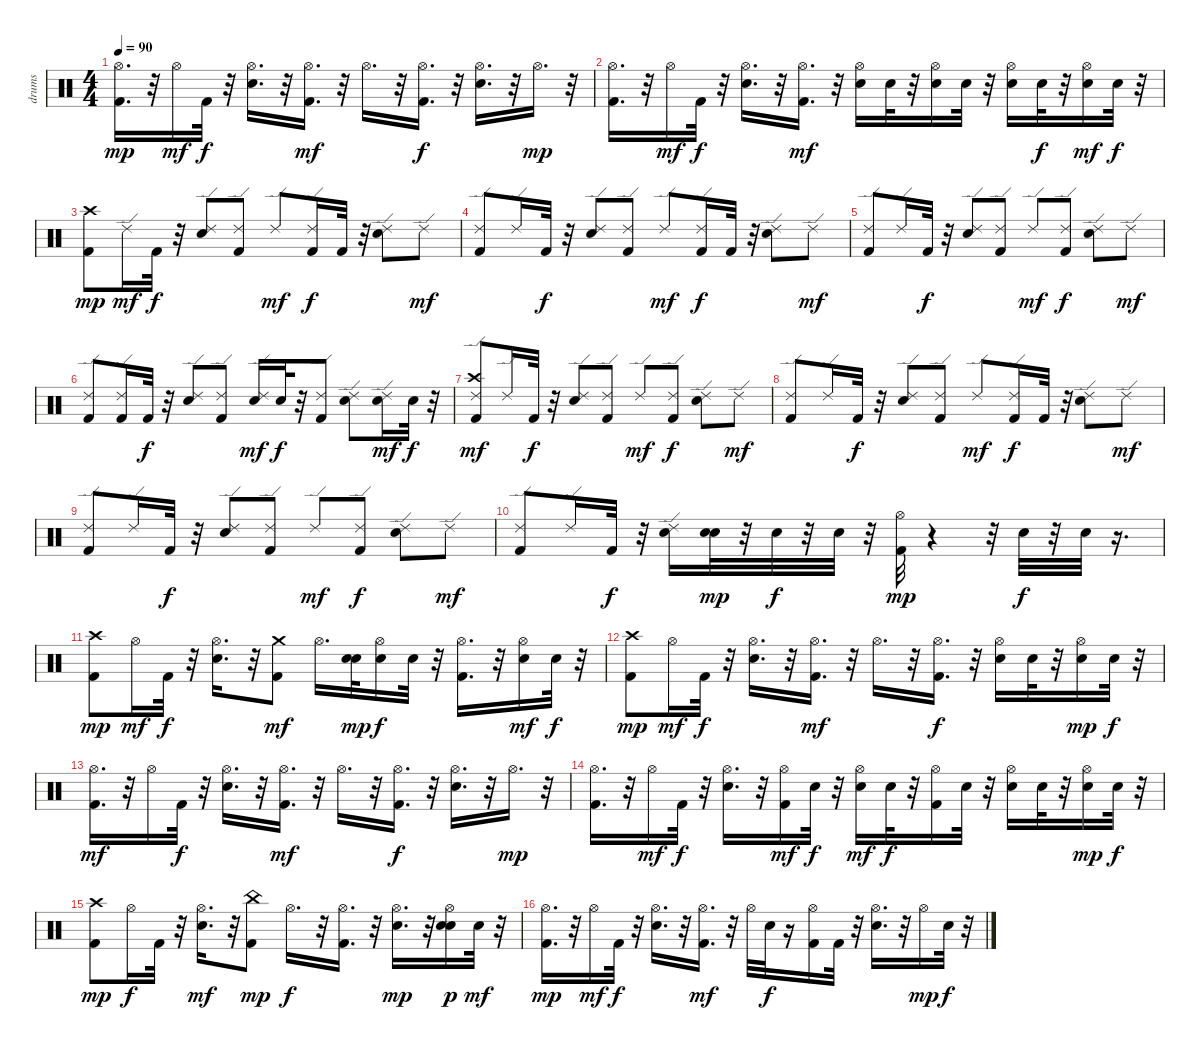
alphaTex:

\track ("drums" "drums") {instrument percussion}
\staff {score}
\articulation defaults
\ts (4 4)
\tempo 90
\clef neutral
\ks c
("Kick (hit) 2" "Hi-Hat (open)").16{d dy mp} r.32 "Hi-Hat (open)".16{dy mf} "Kick (hit) 2".32{dy f} r.32 ("Snare (hit) 2" "Hi-Hat (open)").16{d} r.32 ("Kick (hit) 2" "Hi-Hat (open)").16{d dy mf} r.32 "Hi-Hat (open)".16{d} r.32 ("Kick (hit) 2" "Hi-Hat (open)").16{d dy f} r.32 ("Snare (hit) 2" "Hi-Hat (open)").16{d} r.32 "Hi-Hat (open)".16{d dy mp} r.32 |
("Kick (hit) 2" "Hi-Hat (open)").16{d} r.32 "Hi-Hat (open)".16{dy mf} "Kick (hit) 2".32{dy f} r.32 ("Snare (hit) 2" "Hi-Hat (open)").16{d} r.32 ("Kick (hit) 2" "Hi-Hat (open)").16{d dy mf} r.32 ("Snare (hit) 2" "Hi-Hat (open)").16 "Snare (hit) 2".32 r.32 ("Snare (hit) 2" "Hi-Hat (open)").16 "Snare (hit) 2".32 r.32 ("Snare (hit) 2" "Hi-Hat (open)").16 "Snare (hit) 2".32{dy f} r.32 ("Snare (hit) 2" "Hi-Hat (open)").16{dy mf} "Snare (hit) 2".32{dy f} r.32 |
("Kick (hit) 2" "Crash high (hit)").8{dy mp} "Ride (edge) 2".16{dy mf} "Kick (hit) 2".32{dy f} r.32 ("Snare (hit) 2" "Ride (edge) 2").8 ("Kick (hit) 2" "Ride (edge) 2").8 "Ride (edge) 2".8{dy mf} ("Kick (hit) 2" "Ride (edge) 2").16{dy f} "Kick (hit) 2".32 r.32 ("Snare (hit) 2" "Ride (edge) 2").8 "Ride (edge) 2".8{dy mf} |
("Kick (hit) 2" "Ride (edge) 2").8 "Ride (edge) 2".16 "Kick (hit) 2".32{dy f} r.32 ("Snare (hit) 2" "Ride (edge) 2").8 ("Kick (hit) 2" "Ride (edge) 2").8 "Ride (edge) 2".8{dy mf} ("Kick (hit) 2" "Ride (edge) 2").16{dy f} "Kick (hit) 2".32 r.32 ("Snare (hit) 2" "Ride (edge) 2").8 "Ride (edge) 2".8{dy mf} |
("Kick (hit) 2" "Ride (edge) 2").8 "Ride (edge) 2".16 "Kick (hit) 2".32{dy f} r.32 ("Snare (hit) 2" "Ride (edge) 2").8 ("Kick (hit) 2" "Ride (edge) 2").8 "Ride (edge) 2".8{dy mf} ("Kick (hit) 2" "Ride (edge) 2").8{dy f} ("Snare (hit) 2" "Ride (edge) 2").8 "Ride (edge) 2".8{dy mf} |
("Kick (hit) 2" "Ride (edge) 2").8 ("Kick (hit) 2" "Ride (edge) 2").16 "Kick (hit) 2".32{dy f} r.32 ("Snare (hit) 2" "Ride (edge) 2").8 ("Kick (hit) 2" "Ride (edge) 2").8 ("Snare (hit) 2" "Ride (edge) 2").16{dy mf} "Snare (hit) 2".32{dy f} r.32 ("Kick (hit) 2" "Ride (edge) 2").8 ("Snare (hit) 2" "Ride (edge) 2").8 ("Snare (hit) 2" "Ride (edge) 2").16{dy mf} "Snare (hit) 2".32{dy f} r.32 |
("Kick (hit) 2" "Crash high (hit)" "Ride (edge) 2").8{dy mf} "Ride (edge) 2".16 "Kick (hit) 2".32{dy f} r.32 ("Snare (hit) 2" "Ride (edge) 2").8 ("Kick (hit) 2" "Ride (edge) 2").8 "Ride (edge) 2".8{dy mf} ("Kick (hit) 2" "Ride (edge) 2").8{dy f} ("Snare (hit) 2" "Ride (edge) 2").8 "Ride (edge) 2".8{dy mf} |
("Kick (hit) 2" "Ride (edge) 2").8 "Ride (edge) 2".16 "Kick (hit) 2".32{dy f} r.32 ("Snare (hit) 2" "Ride (edge) 2").8 ("Kick (hit) 2" "Ride (edge) 2").8 "Ride (edge) 2".8{dy mf} ("Kick (hit) 2" "Ride (edge) 2").16{dy f} "Kick (hit) 2".32 r.32 ("Snare (hit) 2" "Ride (edge) 2").8 "Ride (edge) 2".8{dy mf} |
("Kick (hit) 2" "Ride (edge) 2").8 "Ride (edge) 2".16 "Kick (hit) 2".32{dy f} r.32 ("Snare (hit) 2" "Ride (edge) 2").8 ("Kick (hit) 2" "Ride (edge) 2").8 "Ride (edge) 2".8{dy mf} ("Kick (hit) 2" "Ride (edge) 2").8{dy f} ("Snare (hit) 2" "Ride (edge) 2").8 "Ride (edge) 2".8{dy mf} |
("Kick (hit) 2" "Ride (edge) 2").8 "Ride (edge) 2".16 "Kick (hit) 2".32{dy f} r.32 ("Snare (hit) 2" "Ride (edge) 2").16 ("Snare (hit) 2" "Snare (hit) 2").32{dy mp} r.32 "Snare (hit) 2".32{dy f} r.32 "Snare (hit) 2".32 r.32 ("Kick (hit) 2" "Hi-Hat (open)").32{dy mp} r.4 r.32 "Snare (hit) 2".32{dy f} r.32 "Snare (hit) 2".32 r.16{d} |
("Kick (hit) 2" "Crash high (hit)").8{dy mp} "Hi-Hat (open)".16{dy mf} "Kick (hit) 2".32{dy f} r.32 ("Snare (hit) 2" "Hi-Hat (open)").16{d} r.32 ("Kick (hit) 2" "Crash medium (hit)").8{dy mf} "Hi-Hat (open)".16{d} ("Snare (hit) 2" "Snare (hit) 2").32{dy mp} ("Snare (hit) 2" "Hi-Hat (open)").16{dy f} "Snare (hit) 2".32 r.32 ("Kick (hit) 2" "Hi-Hat (open)").16{d} r.32 ("Snare (hit) 2" "Hi-Hat (open)").16{dy mf} "Snare (hit) 2".32{dy f} r.32 |
("Kick (hit) 2" "Crash high (hit)").8{dy mp} "Hi-Hat (open)".16{dy mf} "Kick (hit) 2".32{dy f} r.32 ("Snare (hit) 2" "Hi-Hat (open)").16{d} r.32 ("Kick (hit) 2" "Hi-Hat (open)").16{d dy mf} r.32 "Hi-Hat (open)".16{d} r.32 ("Kick (hit) 2" "Hi-Hat (open)").16{d dy f} r.32 ("Snare (hit) 2" "Hi-Hat (open)").16 "Snare (hit) 2".32 r.32 ("Snare (hit) 2" "Hi-Hat (open)").16{dy mp} "Snare (hit) 2".32{dy f} r.32 |
("Kick (hit) 2" "Hi-Hat (open)").16{d dy mf} r.32 "Hi-Hat (open)".16 "Kick (hit) 2".32{dy f} r.32 ("Snare (hit) 2" "Hi-Hat (open)").16{d} r.32 ("Kick (hit) 2" "Hi-Hat (open)").16{d dy mf} r.32 "Hi-Hat (open)".16{d} r.32 ("Kick (hit) 2" "Hi-Hat (open)").16{d dy f} r.32 ("Snare (hit) 2" "Hi-Hat (open)").16{d} r.32 "Hi-Hat (open)".16{d dy mp} r.32 |
("Kick (hit) 2" "Hi-Hat (open)").16{d} r.32 "Hi-Hat (open)".16{dy mf} "Kick (hit) 2".32{dy f} r.32 ("Snare (hit) 2" "Hi-Hat (open)").16{d} r.32 ("Kick (hit) 2" "Hi-Hat (open)").16{dy mf} "Snare (hit) 2".32{dy f} r.32 ("Snare (hit) 2" "Hi-Hat (open)").16{dy mf} "Snare (hit) 2".32{dy f} r.32 ("Kick (hit) 2" "Hi-Hat (open)").16 "Snare (hit) 2".32 r.32 ("Snare (hit) 2" "Hi-Hat (open)").16 "Snare (hit) 2".32 r.32 ("Snare (hit) 2" "Hi-Hat (open)").16{dy mp} "Snare (hit) 2".32{dy f} r.32 |
("Kick (hit) 2" "Crash high (hit)").8{dy mp} "Hi-Hat (open)".16{dy f} "Kick (hit) 2".32 r.32 ("Snare (hit) 2" "Hi-Hat (open)").16{d dy mf} r.32 ("Kick (hit) 2" "China (hit)").8{dy mp} "Hi-Hat (open)".16{d dy f} r.32 ("Kick (hit) 2" "Hi-Hat (open)").16{d} r.32 ("Snare (hit) 2" "Hi-Hat (open)").16{d dy mp} r.32 ("Snare (hit) 2" "Hi-Hat (open)" "Snare (hit) 2").16{dy p} "Snare (hit) 2".32{dy mf} r.32 |
("Kick (hit) 2" "Hi-Hat (open)").16{d dy mp} r.32 "Hi-Hat (open)".16{dy mf} "Kick (hit) 2".32{dy f} r.32 ("Snare (hit) 2" "Hi-Hat (open)").16{d} r.32 ("Kick (hit) 2" "Hi-Hat (open)").16{d dy mf} r.32 "Hi-Hat (open)".32 "Snare (hit) 2".32{dy f} r.16 ("Kick (hit) 2" "Hi-Hat (open)").16 "Kick (hit) 2".32 r.32 ("Snare (hit) 2" "Hi-Hat (open)").16{d} r.32 "Hi-Hat (open)".16{dy mp} "Snare (hit) 2".32{dy f} r.32
